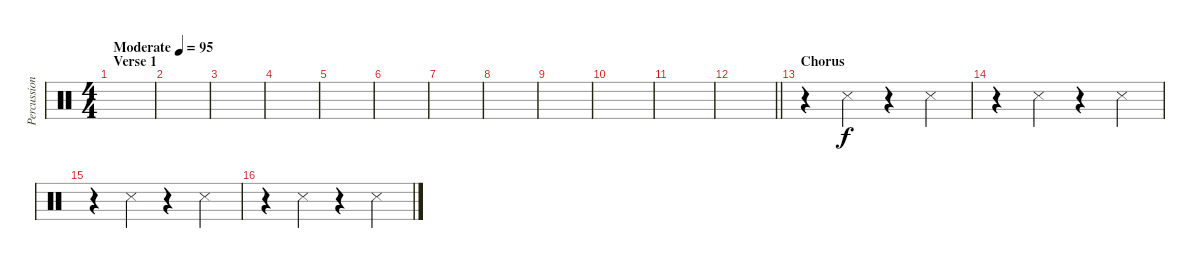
\track ("Percussion" "Percussion") {instrument percussion}
\staff {score}
\articulation defaults
\ts (4 4)
\section ("" "Verse 1")
\tempo (95 "Moderate")
\clef neutral
\ks c
|
|
|
|
|
|
|
|
|
|
|
\barLineRight lightlight
|
\section ("" "Chorus")
r.4 "Snare (side stick) 3".4 r.4 "Snare (side stick) 3".4 |
r.4 "Snare (side stick) 3".4 r.4 "Snare (side stick) 3".4 |
r.4 "Snare (side stick) 3".4 r.4 "Snare (side stick) 3".4 |
r.4 "Snare (side stick) 3".4 r.4 "Snare (side stick) 3".4
